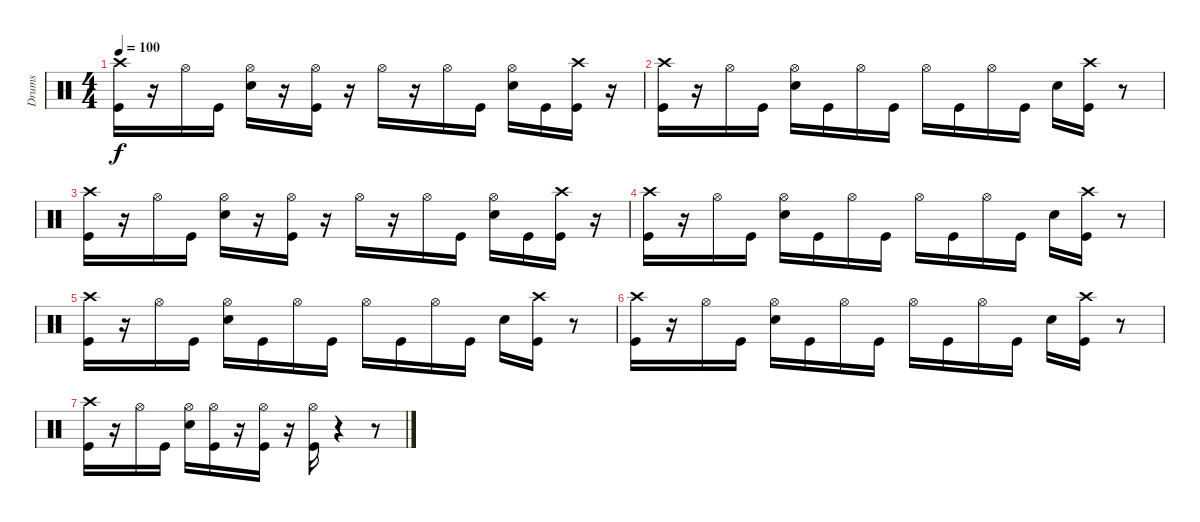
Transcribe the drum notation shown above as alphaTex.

\track ("Drums" "Drums") {instrument percussion}
\staff {score}
\articulation defaults
\ts (4 4)
\tempo 100
\clef neutral
\ks c
("Kick (hit)" "Crash high (hit)").16{dy f} r.16 "Hi-Hat (open)".16 "Kick (hit)".16 ("Electric Snare (hit)" "Hi-Hat (open)").16 r.16 ("Kick (hit)" "Hi-Hat (open)").16 r.16 "Hi-Hat (open)".16 r.16 "Hi-Hat (open)".16 "Kick (hit)".16 ("Electric Snare (hit)" "Hi-Hat (open)").16 "Kick (hit)".16 ("Kick (hit)" "Crash high (hit)").16 r.16 |
("Kick (hit)" "Crash high (hit)").16 r.16 "Hi-Hat (open)".16 "Kick (hit)".16 ("Electric Snare (hit)" "Hi-Hat (open)").16 "Kick (hit)".16 "Hi-Hat (open)".16 "Kick (hit)".16 "Hi-Hat (open)".16 "Kick (hit)".16 "Hi-Hat (open)".16 "Kick (hit)".16 "Electric Snare (hit)".16 ("Kick (hit)" "Crash high (hit)").16 r.8 |
("Kick (hit)" "Crash high (hit)").16 r.16 "Hi-Hat (open)".16 "Kick (hit)".16 ("Electric Snare (hit)" "Hi-Hat (open)").16 r.16 ("Kick (hit)" "Hi-Hat (open)").16 r.16 "Hi-Hat (open)".16 r.16 "Hi-Hat (open)".16 "Kick (hit)".16 ("Electric Snare (hit)" "Hi-Hat (open)").16 "Kick (hit)".16 ("Kick (hit)" "Crash high (hit)").16 r.16 |
("Kick (hit)" "Crash high (hit)").16 r.16 "Hi-Hat (open)".16 "Kick (hit)".16 ("Electric Snare (hit)" "Hi-Hat (open)").16 "Kick (hit)".16 "Hi-Hat (open)".16 "Kick (hit)".16 "Hi-Hat (open)".16 "Kick (hit)".16 "Hi-Hat (open)".16 "Kick (hit)".16 "Electric Snare (hit)".16 ("Kick (hit)" "Crash high (hit)").16 r.8 |
("Kick (hit)" "Crash high (hit)").16 r.16 "Hi-Hat (open)".16 "Kick (hit)".16 ("Electric Snare (hit)" "Hi-Hat (open)").16 "Kick (hit)".16 "Hi-Hat (open)".16 "Kick (hit)".16 "Hi-Hat (open)".16 "Kick (hit)".16 "Hi-Hat (open)".16 "Kick (hit)".16 "Electric Snare (hit)".16 ("Kick (hit)" "Crash high (hit)").16 r.8 |
("Kick (hit)" "Crash high (hit)").16 r.16 "Hi-Hat (open)".16 "Kick (hit)".16 ("Electric Snare (hit)" "Hi-Hat (open)").16 "Kick (hit)".16 "Hi-Hat (open)".16 "Kick (hit)".16 "Hi-Hat (open)".16 "Kick (hit)".16 "Hi-Hat (open)".16 "Kick (hit)".16 "Electric Snare (hit)".16 ("Kick (hit)" "Crash high (hit)").16 r.8 |
("Kick (hit)" "Crash high (hit)").16 r.16 "Hi-Hat (open)".16 "Kick (hit)".16 ("Electric Snare (hit)" "Hi-Hat (open)").16 ("Kick (hit)" "Hi-Hat (open)").16 r.16 ("Kick (hit)" "Hi-Hat (open)").16 r.16 ("Kick (hit)" "Hi-Hat (open)").16 r.4 r.8
